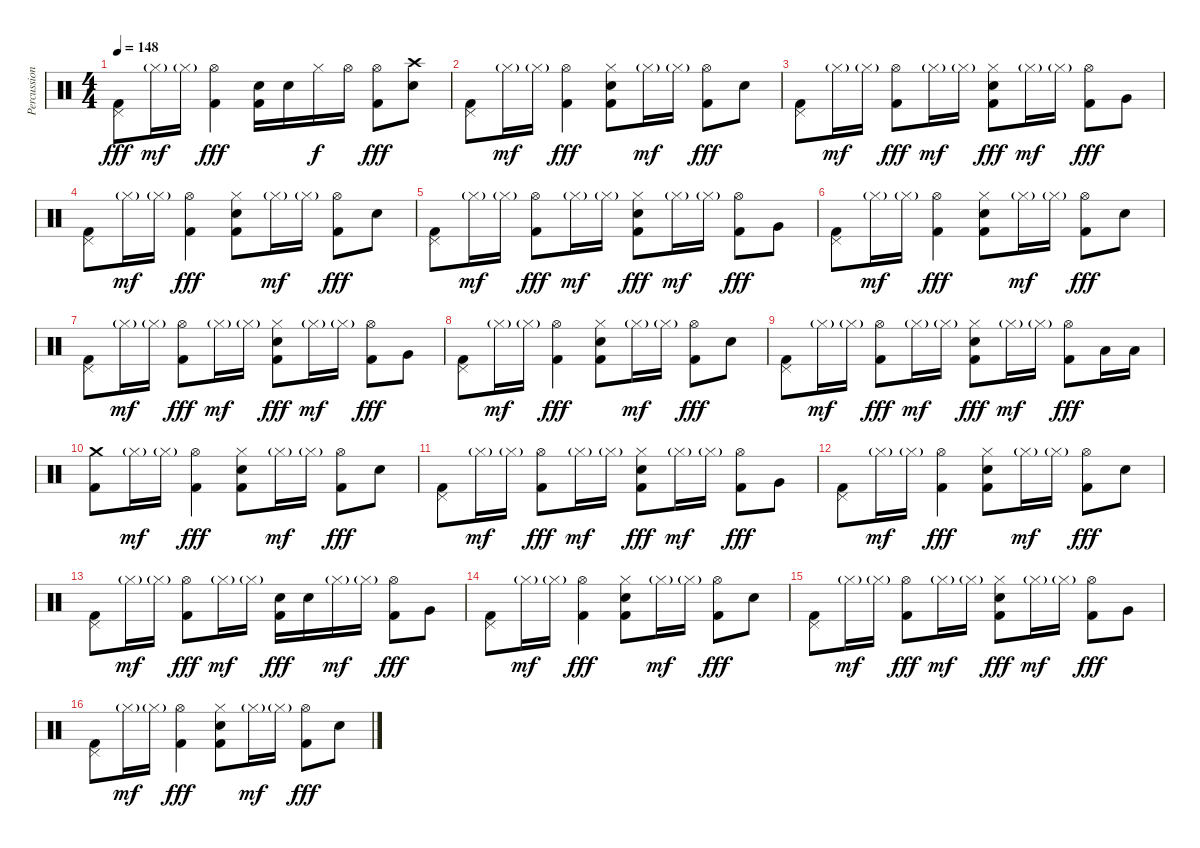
\track ("Percussion" "Percussion") {instrument percussion}
\staff {score}
\articulation defaults
\ts (4 4)
\tempo 148
\clef neutral
\ks c
("Pedal Hi-Hat (hit)" "Kick (hit) 2").8{dy fff} "Hi-Hat (closed)"{g}.16{dy mf} "Hi-Hat (closed)"{g}.16 ("Hi-Hat (open)" "Kick (hit) 2").4{dy fff} ("Kick (hit) 2" "Electric Snare (hit)").16 "Electric Snare (hit)".16 "Hi-Hat (closed)".16{dy f} "Hi-Hat (open)".16 ("Hi-Hat (open)" "Kick (hit) 2").8{dy fff} ("Crash high (hit)" "Electric Snare (hit)").8 |
("Pedal Hi-Hat (hit)" "Kick (hit) 2").8 "Hi-Hat (closed)"{g}.16{dy mf} "Hi-Hat (closed)"{g}.16 ("Hi-Hat (open)" "Kick (hit) 2").4{dy fff} ("Hi-Hat (closed)" "Kick (hit) 2" "Electric Snare (hit)").8 "Hi-Hat (closed)"{g}.16{dy mf} "Hi-Hat (closed)"{g}.16 ("Hi-Hat (open)" "Kick (hit) 2").8{dy fff} "Electric Snare (hit)".8 |
("Pedal Hi-Hat (hit)" "Kick (hit) 2").8 "Hi-Hat (closed)"{g}.16{dy mf} "Hi-Hat (closed)"{g}.16 ("Hi-Hat (open)" "Kick (hit) 2").8{dy fff} "Hi-Hat (closed)"{g}.16{dy mf} "Hi-Hat (closed)"{g}.16 ("Hi-Hat (closed)" "Kick (hit) 2" "Electric Snare (hit)").8{dy fff} "Hi-Hat (closed)"{g}.16{dy mf} "Hi-Hat (closed)"{g}.16 ("Hi-Hat (open)" "Kick (hit) 2").8{dy fff} "Very Low Tom (hit)".8 |
("Pedal Hi-Hat (hit)" "Kick (hit) 2").8 "Hi-Hat (closed)"{g}.16{dy mf} "Hi-Hat (closed)"{g}.16 ("Hi-Hat (open)" "Kick (hit) 2").4{dy fff} ("Hi-Hat (closed)" "Kick (hit) 2" "Electric Snare (hit)").8 "Hi-Hat (closed)"{g}.16{dy mf} "Hi-Hat (closed)"{g}.16 ("Hi-Hat (open)" "Kick (hit) 2").8{dy fff} "Electric Snare (hit)".8 |
("Pedal Hi-Hat (hit)" "Kick (hit) 2").8 "Hi-Hat (closed)"{g}.16{dy mf} "Hi-Hat (closed)"{g}.16 ("Hi-Hat (open)" "Kick (hit) 2").8{dy fff} "Hi-Hat (closed)"{g}.16{dy mf} "Hi-Hat (closed)"{g}.16 ("Hi-Hat (closed)" "Kick (hit) 2" "Electric Snare (hit)").8{dy fff} "Hi-Hat (closed)"{g}.16{dy mf} "Hi-Hat (closed)"{g}.16 ("Hi-Hat (open)" "Kick (hit) 2").8{dy fff} "Very Low Tom (hit)".8 |
("Pedal Hi-Hat (hit)" "Kick (hit) 2").8 "Hi-Hat (closed)"{g}.16{dy mf} "Hi-Hat (closed)"{g}.16 ("Hi-Hat (open)" "Kick (hit) 2").4{dy fff} ("Hi-Hat (closed)" "Kick (hit) 2" "Electric Snare (hit)").8 "Hi-Hat (closed)"{g}.16{dy mf} "Hi-Hat (closed)"{g}.16 ("Hi-Hat (open)" "Kick (hit) 2").8{dy fff} "Electric Snare (hit)".8 |
("Pedal Hi-Hat (hit)" "Kick (hit) 2").8 "Hi-Hat (closed)"{g}.16{dy mf} "Hi-Hat (closed)"{g}.16 ("Hi-Hat (open)" "Kick (hit) 2").8{dy fff} "Hi-Hat (closed)"{g}.16{dy mf} "Hi-Hat (closed)"{g}.16 ("Hi-Hat (closed)" "Kick (hit) 2" "Electric Snare (hit)").8{dy fff} "Hi-Hat (closed)"{g}.16{dy mf} "Hi-Hat (closed)"{g}.16 ("Hi-Hat (open)" "Kick (hit) 2").8{dy fff} "Very Low Tom (hit)".8 |
("Pedal Hi-Hat (hit)" "Kick (hit) 2").8 "Hi-Hat (closed)"{g}.16{dy mf} "Hi-Hat (closed)"{g}.16 ("Hi-Hat (open)" "Kick (hit) 2").4{dy fff} ("Hi-Hat (closed)" "Kick (hit) 2" "Electric Snare (hit)").8 "Hi-Hat (closed)"{g}.16{dy mf} "Hi-Hat (closed)"{g}.16 ("Hi-Hat (open)" "Kick (hit) 2").8{dy fff} "Electric Snare (hit)".8 |
("Pedal Hi-Hat (hit)" "Kick (hit) 2").8 "Hi-Hat (closed)"{g}.16{dy mf} "Hi-Hat (closed)"{g}.16 ("Hi-Hat (open)" "Kick (hit) 2").8{dy fff} "Hi-Hat (closed)"{g}.16{dy mf} "Hi-Hat (closed)"{g}.16 ("Hi-Hat (closed)" "Kick (hit) 2" "Electric Snare (hit)").8{dy fff} "Hi-Hat (closed)"{g}.16{dy mf} "Hi-Hat (closed)"{g}.16 ("Hi-Hat (open)" "Kick (hit) 2").8{dy fff} "Low Floor Tom (hit)".16 "Low Floor Tom (hit)".16 |
("Crash medium (hit)" "Kick (hit) 2").8 "Hi-Hat (closed)"{g}.16{dy mf} "Hi-Hat (closed)"{g}.16 ("Hi-Hat (open)" "Kick (hit) 2").4{dy fff} ("Hi-Hat (closed)" "Kick (hit) 2" "Electric Snare (hit)").8 "Hi-Hat (closed)"{g}.16{dy mf} "Hi-Hat (closed)"{g}.16 ("Hi-Hat (open)" "Kick (hit) 2").8{dy fff} "Electric Snare (hit)".8 |
("Pedal Hi-Hat (hit)" "Kick (hit) 2").8 "Hi-Hat (closed)"{g}.16{dy mf} "Hi-Hat (closed)"{g}.16 ("Hi-Hat (open)" "Kick (hit) 2").8{dy fff} "Hi-Hat (closed)"{g}.16{dy mf} "Hi-Hat (closed)"{g}.16 ("Hi-Hat (closed)" "Kick (hit) 2" "Electric Snare (hit)").8{dy fff} "Hi-Hat (closed)"{g}.16{dy mf} "Hi-Hat (closed)"{g}.16 ("Hi-Hat (open)" "Kick (hit) 2").8{dy fff} "Very Low Tom (hit)".8 |
("Pedal Hi-Hat (hit)" "Kick (hit) 2").8 "Hi-Hat (closed)"{g}.16{dy mf} "Hi-Hat (closed)"{g}.16 ("Hi-Hat (open)" "Kick (hit) 2").4{dy fff} ("Hi-Hat (closed)" "Kick (hit) 2" "Electric Snare (hit)").8 "Hi-Hat (closed)"{g}.16{dy mf} "Hi-Hat (closed)"{g}.16 ("Hi-Hat (open)" "Kick (hit) 2").8{dy fff} "Electric Snare (hit)".8 |
("Pedal Hi-Hat (hit)" "Kick (hit) 2").8 "Hi-Hat (closed)"{g}.16{dy mf} "Hi-Hat (closed)"{g}.16 ("Hi-Hat (open)" "Kick (hit) 2").8{dy fff} "Hi-Hat (closed)"{g}.16{dy mf} "Hi-Hat (closed)"{g}.16 ("Kick (hit) 2" "Electric Snare (hit)").16{dy fff} "Electric Snare (hit)".16 "Hi-Hat (closed)"{g}.16{dy mf} "Hi-Hat (closed)"{g}.16 ("Hi-Hat (open)" "Kick (hit) 2").8{dy fff} "Very Low Tom (hit)".8 |
("Pedal Hi-Hat (hit)" "Kick (hit) 2").8 "Hi-Hat (closed)"{g}.16{dy mf} "Hi-Hat (closed)"{g}.16 ("Hi-Hat (open)" "Kick (hit) 2").4{dy fff} ("Hi-Hat (closed)" "Kick (hit) 2" "Electric Snare (hit)").8 "Hi-Hat (closed)"{g}.16{dy mf} "Hi-Hat (closed)"{g}.16 ("Hi-Hat (open)" "Kick (hit) 2").8{dy fff} "Electric Snare (hit)".8 |
("Pedal Hi-Hat (hit)" "Kick (hit) 2").8 "Hi-Hat (closed)"{g}.16{dy mf} "Hi-Hat (closed)"{g}.16 ("Hi-Hat (open)" "Kick (hit) 2").8{dy fff} "Hi-Hat (closed)"{g}.16{dy mf} "Hi-Hat (closed)"{g}.16 ("Hi-Hat (closed)" "Kick (hit) 2" "Electric Snare (hit)").8{dy fff} "Hi-Hat (closed)"{g}.16{dy mf} "Hi-Hat (closed)"{g}.16 ("Hi-Hat (open)" "Kick (hit) 2").8{dy fff} "Very Low Tom (hit)".8 |
("Pedal Hi-Hat (hit)" "Kick (hit) 2").8 "Hi-Hat (closed)"{g}.16{dy mf} "Hi-Hat (closed)"{g}.16 ("Hi-Hat (open)" "Kick (hit) 2").4{dy fff} ("Hi-Hat (closed)" "Kick (hit) 2" "Electric Snare (hit)").8 "Hi-Hat (closed)"{g}.16{dy mf} "Hi-Hat (closed)"{g}.16 ("Hi-Hat (open)" "Kick (hit) 2").8{dy fff} "Electric Snare (hit)".8
